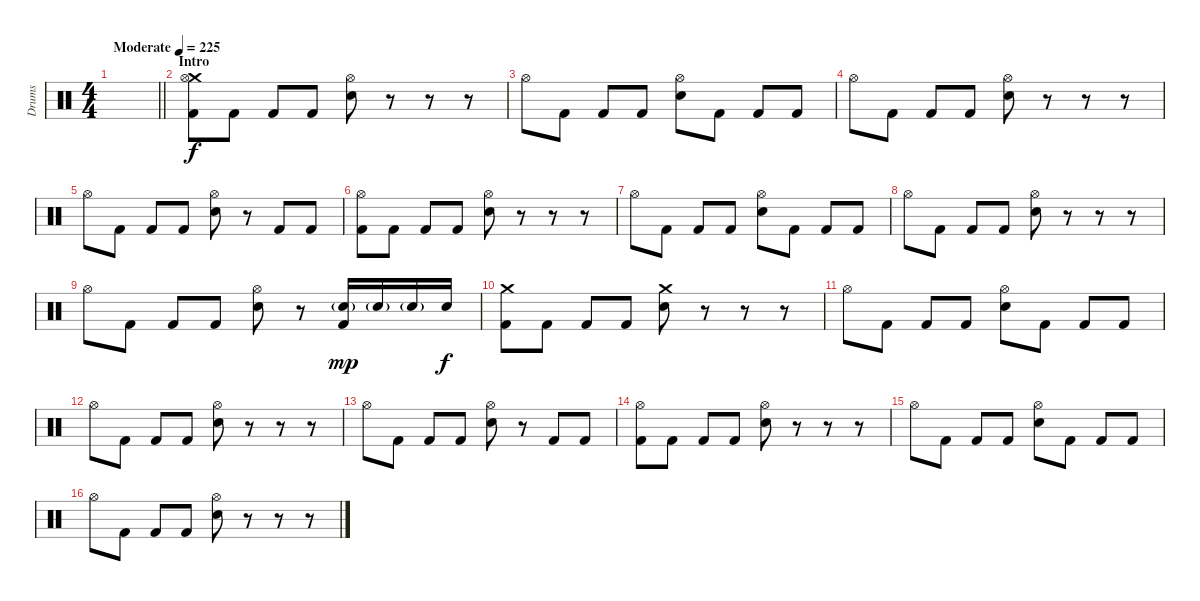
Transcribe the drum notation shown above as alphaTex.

\track ("Drums" "Drums") {instrument percussion}
\staff {score}
\articulation defaults
\ts (4 4)
\tempo (225 "Moderate")
\clef neutral
\barLineRight lightlight
\ks c
|
\section ("" "Intro")
("Crash medium (hit)" "Hi-Hat (open)" "Kick (hit) 2").8 "Kick (hit) 2".8 "Kick (hit) 2".8 "Kick (hit) 2".8 ("Hi-Hat (open)" "Electric Snare (hit)").8 r.8 r.8 r.8 |
"Hi-Hat (open)".8 "Kick (hit) 2".8 "Kick (hit) 2".8 "Kick (hit) 2".8 ("Hi-Hat (open)" "Electric Snare (hit)").8 "Kick (hit) 2".8 "Kick (hit) 2".8 "Kick (hit) 2".8 |
"Hi-Hat (open)".8 "Kick (hit) 2".8 "Kick (hit) 2".8 "Kick (hit) 2".8 ("Hi-Hat (open)" "Electric Snare (hit)").8 r.8 r.8 r.8 |
"Hi-Hat (open)".8 "Kick (hit) 2".8 "Kick (hit) 2".8 "Kick (hit) 2".8 ("Hi-Hat (open)" "Electric Snare (hit)").8 r.8 "Kick (hit) 2".8 "Kick (hit) 2".8 |
("Hi-Hat (open)" "Kick (hit) 2").8 "Kick (hit) 2".8 "Kick (hit) 2".8 "Kick (hit) 2".8 ("Hi-Hat (open)" "Electric Snare (hit)").8 r.8 r.8 r.8 |
"Hi-Hat (open)".8 "Kick (hit) 2".8 "Kick (hit) 2".8 "Kick (hit) 2".8 ("Hi-Hat (open)" "Electric Snare (hit)").8 "Kick (hit) 2".8 "Kick (hit) 2".8 "Kick (hit) 2".8 |
"Hi-Hat (open)".8 "Kick (hit) 2".8 "Kick (hit) 2".8 "Kick (hit) 2".8 ("Hi-Hat (open)" "Electric Snare (hit)").8 r.8 r.8 r.8 |
"Hi-Hat (open)".8 "Kick (hit) 2".8 "Kick (hit) 2".8 "Kick (hit) 2".8 ("Hi-Hat (open)" "Electric Snare (hit)").8 r.8 ("Electric Snare (hit)"{g} "Kick (hit) 2").16{dy mp} "Electric Snare (hit)"{g}.16 "Electric Snare (hit)"{g}.16 "Electric Snare (hit)".16{dy f} |
("Crash medium (hit)" "Kick (hit) 2").8 "Kick (hit) 2".8 "Kick (hit) 2".8 "Kick (hit) 2".8 ("Crash medium (hit)" "Electric Snare (hit)").8 r.8 r.8 r.8 |
"Hi-Hat (open)".8 "Kick (hit) 2".8 "Kick (hit) 2".8 "Kick (hit) 2".8 ("Hi-Hat (open)" "Electric Snare (hit)").8 "Kick (hit) 2".8 "Kick (hit) 2".8 "Kick (hit) 2".8 |
"Hi-Hat (open)".8 "Kick (hit) 2".8 "Kick (hit) 2".8 "Kick (hit) 2".8 ("Hi-Hat (open)" "Electric Snare (hit)").8 r.8 r.8 r.8 |
"Hi-Hat (open)".8 "Kick (hit) 2".8 "Kick (hit) 2".8 "Kick (hit) 2".8 ("Hi-Hat (open)" "Electric Snare (hit)").8 r.8 "Kick (hit) 2".8 "Kick (hit) 2".8 |
("Hi-Hat (open)" "Kick (hit) 2").8 "Kick (hit) 2".8 "Kick (hit) 2".8 "Kick (hit) 2".8 ("Hi-Hat (open)" "Electric Snare (hit)").8 r.8 r.8 r.8 |
"Hi-Hat (open)".8 "Kick (hit) 2".8 "Kick (hit) 2".8 "Kick (hit) 2".8 ("Hi-Hat (open)" "Electric Snare (hit)").8 "Kick (hit) 2".8 "Kick (hit) 2".8 "Kick (hit) 2".8 |
"Hi-Hat (open)".8 "Kick (hit) 2".8 "Kick (hit) 2".8 "Kick (hit) 2".8 ("Hi-Hat (open)" "Electric Snare (hit)").8 r.8 r.8 r.8
